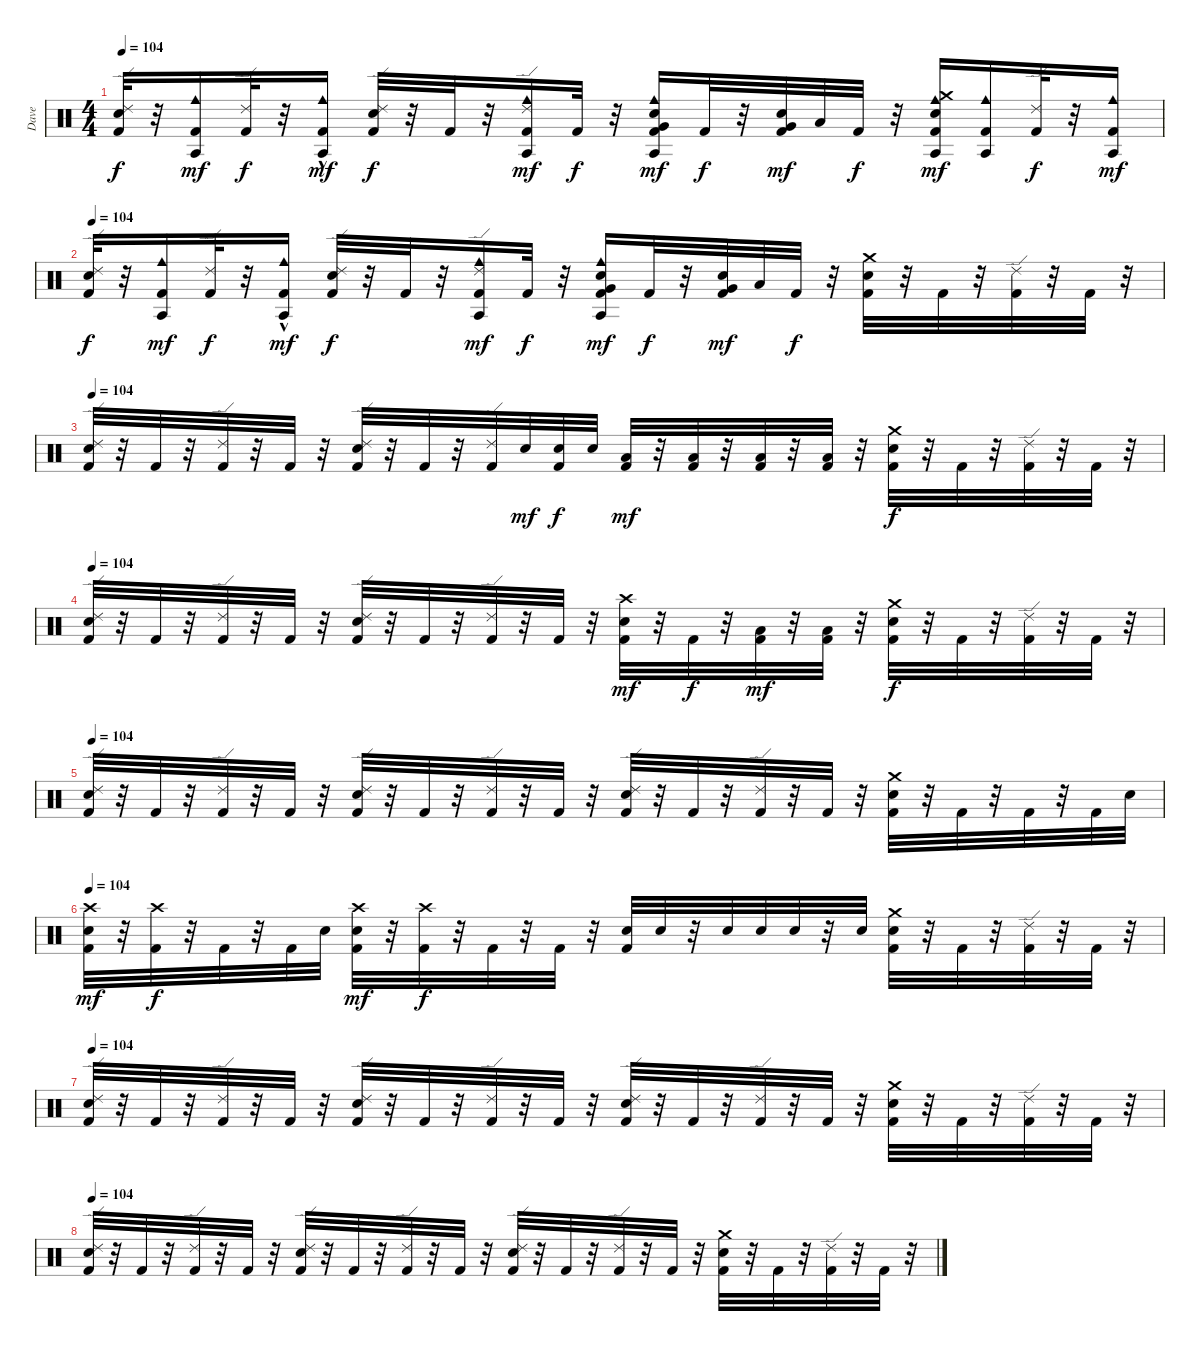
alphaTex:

\track ("Dave" "Dave") {instrument percussion}
\staff {score}
\articulation defaults
\ts (4 4)
\tempo 104
\clef neutral
\ks c
("Kick (hit) 2" "Snare (hit) 2" "Ride (edge) 2").32{dy f} r.32 ("Cowbell medium (hit)" "Agogo tow (hit)" "Kick (hit) 2").16{dy mf} ("Kick (hit) 2" "Ride (edge) 2").32{dy f} r.32 ("Cowbell medium (hit)"{hac} "Agogo tow (hit)"{hac} "Kick (hit) 2").16{dy mf} ("Kick (hit) 2" "Snare (hit) 2" "Ride (edge) 2").32{dy f} r.32 "Kick (hit) 2".32 r.32 ("Cowbell medium (hit)" "Agogo tow (hit)" "Kick (hit) 2" "Ride (edge) 2").16{dy mf} "Kick (hit) 2".32{dy f} r.32 ("Cowbell medium (hit)" "Agogo tow (hit)" "Kick (hit) 2" "Snare (hit) 2" "Very Low Tom (hit)").16{dy mf} "Kick (hit) 2".32{dy f} r.32 ("Kick (hit) 2" "Snare (hit) 2" "Very Low Tom (hit)").32{dy mf} "Low Floor Tom (hit)".32 "Kick (hit) 2".32{dy f} r.32 ("Cowbell medium (hit)" "Agogo tow (hit)" "Kick (hit) 2" "Snare (hit) 2" "Crash medium (hit)").16{dy mf} ("Cowbell medium (hit)" "Agogo tow (hit)" "Kick (hit) 2").16 ("Kick (hit) 2" "Ride (edge) 2").32{dy f} r.32 ("Cowbell medium (hit)" "Agogo tow (hit)" "Kick (hit) 2").16{dy mf} |
\tempo 104
("Kick (hit) 2" "Snare (hit) 2" "Ride (edge) 2").32{dy f} r.32 ("Cowbell medium (hit)" "Agogo tow (hit)" "Kick (hit) 2").16{dy mf} ("Kick (hit) 2" "Ride (edge) 2").32{dy f} r.32 ("Cowbell medium (hit)"{hac} "Agogo tow (hit)"{hac} "Kick (hit) 2").16{dy mf} ("Kick (hit) 2" "Snare (hit) 2" "Ride (edge) 2").32{dy f} r.32 "Kick (hit) 2".32 r.32 ("Cowbell medium (hit)" "Agogo tow (hit)" "Kick (hit) 2" "Ride (edge) 2").16{dy mf} "Kick (hit) 2".32{dy f} r.32 ("Cowbell medium (hit)" "Agogo tow (hit)" "Kick (hit) 2" "Snare (hit) 2" "Very Low Tom (hit)").16{dy mf} "Kick (hit) 2".32{dy f} r.32 ("Kick (hit) 2" "Snare (hit) 2" "Very Low Tom (hit)").32{dy mf} "Low Floor Tom (hit)".32 "Kick (hit) 2".32{dy f} r.32 ("Kick (hit) 2" "Snare (hit) 2" "Crash medium (hit)").32 r.32 "Kick (hit) 2".32 r.32 ("Kick (hit) 2" "Ride (edge) 2").32 r.32 "Kick (hit) 2".32 r.32 |
\tempo 104
("Kick (hit) 2" "Snare (hit) 2" "Ride (edge) 2").32 r.32 "Kick (hit) 2".32 r.32 ("Kick (hit) 2" "Ride (edge) 2").32 r.32 "Kick (hit) 2".32 r.32 ("Kick (hit) 2" "Snare (hit) 2" "Ride (edge) 2").32 r.32 "Kick (hit) 2".32 r.32 ("Kick (hit) 2" "Ride (edge) 2").32 "Snare (hit) 2".32{dy mf} ("Kick (hit) 2" "Snare (hit) 2").32{dy f} "Snare (hit) 2".32 ("Kick (hit) 2" "Low Floor Tom (hit)").32{dy mf} r.32 ("Kick (hit) 2" "Low Floor Tom (hit)").32 r.32 ("Kick (hit) 2" "Low Floor Tom (hit)").32 r.32 ("Kick (hit) 2" "Low Floor Tom (hit)").32 r.32 ("Kick (hit) 2" "Snare (hit) 2" "Crash medium (hit)").32{dy f} r.32 "Kick (hit) 2".32 r.32 ("Kick (hit) 2" "Ride (edge) 2").32 r.32 "Kick (hit) 2".32 r.32 |
\tempo 104
("Kick (hit) 2" "Snare (hit) 2" "Ride (edge) 2").32 r.32 "Kick (hit) 2".32 r.32 ("Kick (hit) 2" "Ride (edge) 2").32 r.32 "Kick (hit) 2".32 r.32 ("Kick (hit) 2" "Snare (hit) 2" "Ride (edge) 2").32 r.32 "Kick (hit) 2".32 r.32 ("Kick (hit) 2" "Ride (edge) 2").32 r.32 "Kick (hit) 2".32 r.32 ("Kick (hit) 2" "Snare (hit) 2" "Crash high (hit)").32{dy mf} r.32 "Kick (hit) 2".32{dy f} r.32 ("Kick (hit) 2" "Low Floor Tom (hit)").32{dy mf} r.32 ("Kick (hit) 2" "Low Floor Tom (hit)").32 r.32 ("Kick (hit) 2" "Snare (hit) 2" "Crash medium (hit)").32{dy f} r.32 "Kick (hit) 2".32 r.32 ("Kick (hit) 2" "Ride (edge) 2").32 r.32 "Kick (hit) 2".32 r.32 |
\tempo 104
("Kick (hit) 2" "Snare (hit) 2" "Ride (edge) 2").32 r.32 "Kick (hit) 2".32 r.32 ("Kick (hit) 2" "Ride (edge) 2").32 r.32 "Kick (hit) 2".32 r.32 ("Kick (hit) 2" "Snare (hit) 2" "Ride (edge) 2").32 r.32 "Kick (hit) 2".32 r.32 ("Kick (hit) 2" "Ride (edge) 2").32 r.32 "Kick (hit) 2".32 r.32 ("Kick (hit) 2" "Snare (hit) 2" "Ride (edge) 2").32 r.32 "Kick (hit) 2".32 r.32 ("Kick (hit) 2" "Ride (edge) 2").32 r.32 "Kick (hit) 2".32 r.32 ("Kick (hit) 2" "Snare (hit) 2" "Crash medium (hit)").32 r.32 "Kick (hit) 2".32 r.32 "Kick (hit) 2".32 r.32 "Kick (hit) 2".32 "Electric Snare (hit)".32 |
\tempo 104
("Kick (hit) 2" "Electric Snare (hit)" "Crash high (hit)").32{dy mf} r.32 ("Kick (hit) 2" "Crash high (hit)").32{dy f} r.32 "Kick (hit) 2".32 r.32 "Kick (hit) 2".32 "Electric Snare (hit)".32 ("Kick (hit) 2" "Electric Snare (hit)" "Crash high (hit)").32{dy mf} r.32 ("Kick (hit) 2" "Crash high (hit)").32{dy f} r.32 "Kick (hit) 2".32 r.32 "Kick (hit) 2".32 r.32 ("Kick (hit) 2" "Electric Snare (hit)").32 "Electric Snare (hit)".32 r.32 "Electric Snare (hit)".32 "Electric Snare (hit)".32 "Electric Snare (hit)".32 r.32 "Electric Snare (hit)".32 ("Kick (hit) 2" "Snare (hit) 2" "Crash medium (hit)").32 r.32 "Kick (hit) 2".32 r.32 ("Kick (hit) 2" "Ride (edge) 2").32 r.32 "Kick (hit) 2".32 r.32 |
\tempo 104
("Kick (hit) 2" "Snare (hit) 2" "Ride (edge) 2").32 r.32 "Kick (hit) 2".32 r.32 ("Kick (hit) 2" "Ride (edge) 2").32 r.32 "Kick (hit) 2".32 r.32 ("Kick (hit) 2" "Snare (hit) 2" "Ride (edge) 2").32 r.32 "Kick (hit) 2".32 r.32 ("Kick (hit) 2" "Ride (edge) 2").32 r.32 "Kick (hit) 2".32 r.32 ("Kick (hit) 2" "Snare (hit) 2" "Ride (edge) 2").32 r.32 "Kick (hit) 2".32 r.32 ("Kick (hit) 2" "Ride (edge) 2").32 r.32 "Kick (hit) 2".32 r.32 ("Kick (hit) 2" "Snare (hit) 2" "Crash medium (hit)").32 r.32 "Kick (hit) 2".32 r.32 ("Kick (hit) 2" "Ride (edge) 2").32 r.32 "Kick (hit) 2".32 r.32 |
\tempo 104
("Kick (hit) 2" "Snare (hit) 2" "Ride (edge) 2").32 r.32 "Kick (hit) 2".32 r.32 ("Kick (hit) 2" "Ride (edge) 2").32 r.32 "Kick (hit) 2".32 r.32 ("Kick (hit) 2" "Snare (hit) 2" "Ride (edge) 2").32 r.32 "Kick (hit) 2".32 r.32 ("Kick (hit) 2" "Ride (edge) 2").32 r.32 "Kick (hit) 2".32 r.32 ("Kick (hit) 2" "Snare (hit) 2" "Ride (edge) 2").32 r.32 "Kick (hit) 2".32 r.32 ("Kick (hit) 2" "Ride (edge) 2").32 r.32 "Kick (hit) 2".32 r.32 ("Kick (hit) 2" "Snare (hit) 2" "Crash medium (hit)").32 r.32 "Kick (hit) 2".32 r.32 ("Kick (hit) 2" "Ride (edge) 2").32 r.32 "Kick (hit) 2".32 r.32
